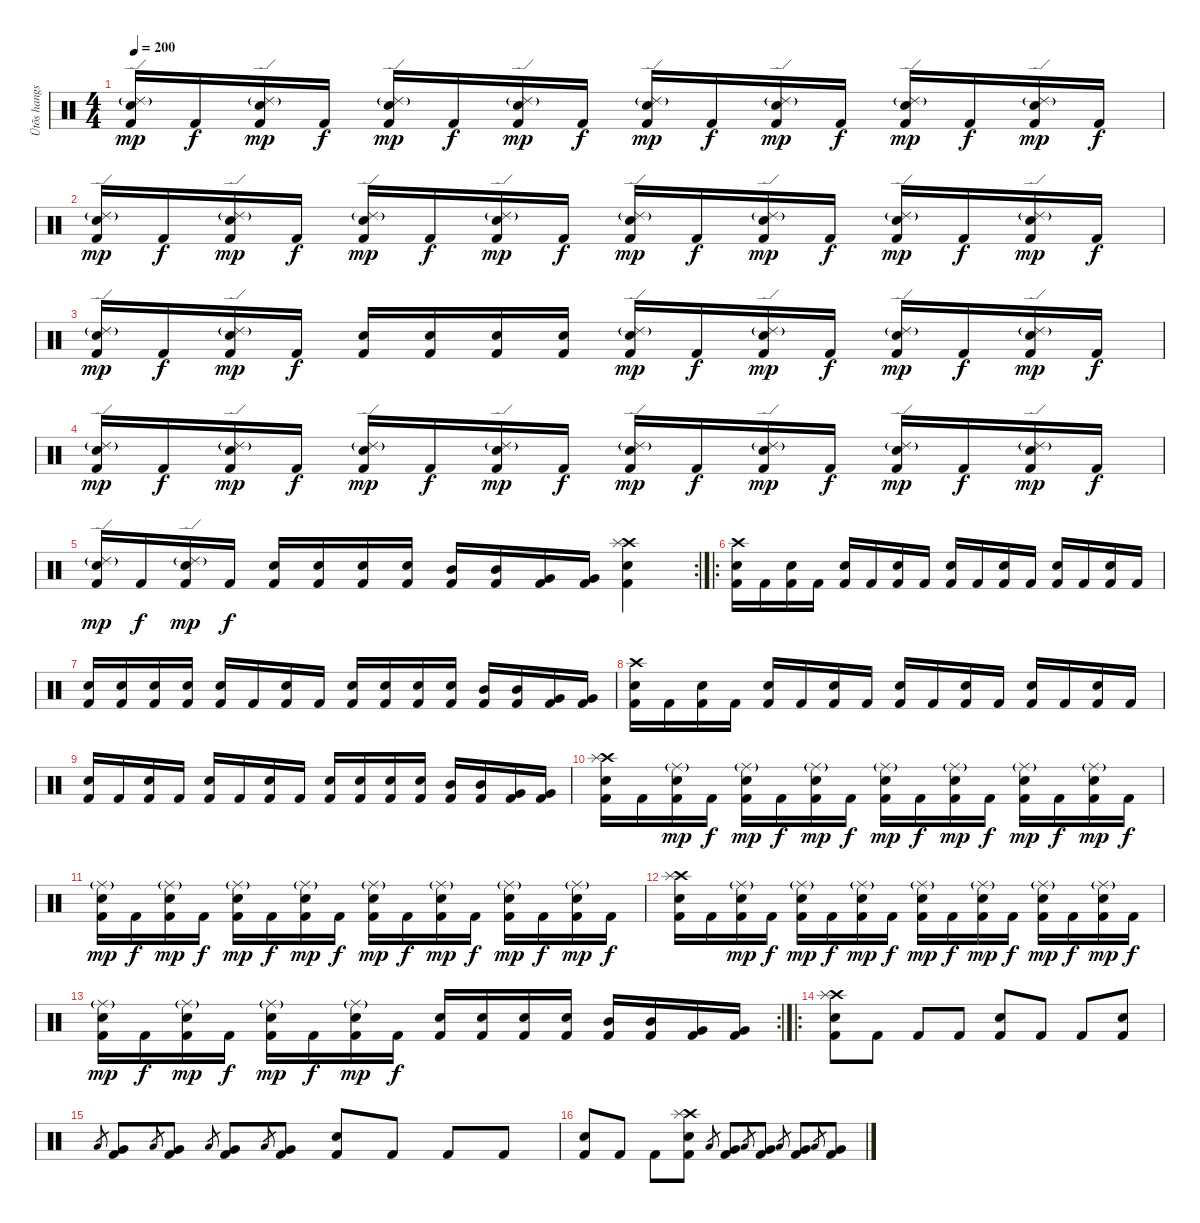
\track ("Ütõs hangszer" "Ütõs hangs") {instrument percussion}
\staff {score}
\articulation defaults
\ts (4 4)
\tempo 200
\clef neutral
\ks c
("Ride (edge) 2"{g} "Electric Snare (hit)" "Kick (hit) 2").16{dy mp} "Kick (hit) 2".16{dy f} ("Ride (edge) 2"{g} "Electric Snare (hit)" "Kick (hit) 2").16{dy mp} "Kick (hit) 2".16{dy f} ("Ride (edge) 2"{g} "Electric Snare (hit)" "Kick (hit) 2").16{dy mp} "Kick (hit) 2".16{dy f} ("Ride (edge) 2"{g} "Electric Snare (hit)" "Kick (hit) 2").16{dy mp} "Kick (hit) 2".16{dy f} ("Ride (edge) 2"{g} "Electric Snare (hit)" "Kick (hit) 2").16{dy mp} "Kick (hit) 2".16{dy f} ("Ride (edge) 2"{g} "Electric Snare (hit)" "Kick (hit) 2").16{dy mp} "Kick (hit) 2".16{dy f} ("Ride (edge) 2"{g} "Electric Snare (hit)" "Kick (hit) 2").16{dy mp} "Kick (hit) 2".16{dy f} ("Ride (edge) 2"{g} "Electric Snare (hit)" "Kick (hit) 2").16{dy mp} "Kick (hit) 2".16{dy f} |
("Ride (edge) 2"{g} "Electric Snare (hit)" "Kick (hit) 2").16{dy mp} "Kick (hit) 2".16{dy f} ("Ride (edge) 2"{g} "Electric Snare (hit)" "Kick (hit) 2").16{dy mp} "Kick (hit) 2".16{dy f} ("Ride (edge) 2"{g} "Electric Snare (hit)" "Kick (hit) 2").16{dy mp} "Kick (hit) 2".16{dy f} ("Ride (edge) 2"{g} "Electric Snare (hit)" "Kick (hit) 2").16{dy mp} "Kick (hit) 2".16{dy f} ("Ride (edge) 2"{g} "Electric Snare (hit)" "Kick (hit) 2").16{dy mp} "Kick (hit) 2".16{dy f} ("Ride (edge) 2"{g} "Electric Snare (hit)" "Kick (hit) 2").16{dy mp} "Kick (hit) 2".16{dy f} ("Ride (edge) 2"{g} "Electric Snare (hit)" "Kick (hit) 2").16{dy mp} "Kick (hit) 2".16{dy f} ("Ride (edge) 2"{g} "Electric Snare (hit)" "Kick (hit) 2").16{dy mp} "Kick (hit) 2".16{dy f} |
("Ride (edge) 2"{g} "Electric Snare (hit)" "Kick (hit) 2").16{dy mp} "Kick (hit) 2".16{dy f} ("Ride (edge) 2"{g} "Electric Snare (hit)" "Kick (hit) 2").16{dy mp} "Kick (hit) 2".16{dy f} ("Electric Snare (hit)" "Kick (hit) 2").16 ("Electric Snare (hit)" "Kick (hit) 2").16 ("Electric Snare (hit)" "Kick (hit) 2").16 ("Electric Snare (hit)" "Kick (hit) 2").16 ("Ride (edge) 2"{g} "Electric Snare (hit)" "Kick (hit) 2").16{dy mp} "Kick (hit) 2".16{dy f} ("Ride (edge) 2"{g} "Electric Snare (hit)" "Kick (hit) 2").16{dy mp} "Kick (hit) 2".16{dy f} ("Ride (edge) 2"{g} "Electric Snare (hit)" "Kick (hit) 2").16{dy mp} "Kick (hit) 2".16{dy f} ("Ride (edge) 2"{g} "Electric Snare (hit)" "Kick (hit) 2").16{dy mp} "Kick (hit) 2".16{dy f} |
("Ride (edge) 2"{g} "Electric Snare (hit)" "Kick (hit) 2").16{dy mp} "Kick (hit) 2".16{dy f} ("Ride (edge) 2"{g} "Electric Snare (hit)" "Kick (hit) 2").16{dy mp} "Kick (hit) 2".16{dy f} ("Ride (edge) 2"{g} "Electric Snare (hit)" "Kick (hit) 2").16{dy mp} "Kick (hit) 2".16{dy f} ("Ride (edge) 2"{g} "Electric Snare (hit)" "Kick (hit) 2").16{dy mp} "Kick (hit) 2".16{dy f} ("Ride (edge) 2"{g} "Electric Snare (hit)" "Kick (hit) 2").16{dy mp} "Kick (hit) 2".16{dy f} ("Ride (edge) 2"{g} "Electric Snare (hit)" "Kick (hit) 2").16{dy mp} "Kick (hit) 2".16{dy f} ("Ride (edge) 2"{g} "Electric Snare (hit)" "Kick (hit) 2").16{dy mp} "Kick (hit) 2".16{dy f} ("Ride (edge) 2"{g} "Electric Snare (hit)" "Kick (hit) 2").16{dy mp} "Kick (hit) 2".16{dy f} |
\rc 2
("Ride (edge) 2"{g} "Electric Snare (hit)" "Kick (hit) 2").16{dy mp} "Kick (hit) 2".16{dy f} ("Ride (edge) 2"{g} "Electric Snare (hit)" "Kick (hit) 2").16{dy mp} "Kick (hit) 2".16{dy f} ("Electric Snare (hit)" "Kick (hit) 2").16 ("Electric Snare (hit)" "Kick (hit) 2").16 ("Electric Snare (hit)" "Kick (hit) 2").16 ("Electric Snare (hit)" "Kick (hit) 2").16 ("Mid Tom (hit)" "Kick (hit) 2").16 ("Mid Tom (hit)" "Kick (hit) 2").16 ("Very Low Tom (hit)" "Kick (hit) 2").16 ("Very Low Tom (hit)" "Kick (hit) 2").16 ("Crash high (hit)" "Splash (hit)" "Electric Snare (hit)" "Kick (hit) 2").4 |
\ro
("Crash high (hit)" "Electric Snare (hit)" "Kick (hit) 2").16 "Kick (hit) 2".16 ("Electric Snare (hit)" "Kick (hit) 2").16 "Kick (hit) 2".16 ("Electric Snare (hit)" "Kick (hit) 2").16 "Kick (hit) 2".16 ("Electric Snare (hit)" "Kick (hit) 2").16 "Kick (hit) 2".16 ("Electric Snare (hit)" "Kick (hit) 2").16 "Kick (hit) 2".16 ("Electric Snare (hit)" "Kick (hit) 2").16 "Kick (hit) 2".16 ("Electric Snare (hit)" "Kick (hit) 2").16 "Kick (hit) 2".16 ("Electric Snare (hit)" "Kick (hit) 2").16 "Kick (hit) 2".16 |
("Electric Snare (hit)" "Kick (hit) 2").16 ("Electric Snare (hit)" "Kick (hit) 2").16 ("Electric Snare (hit)" "Kick (hit) 2").16 ("Electric Snare (hit)" "Kick (hit) 2").16 ("Electric Snare (hit)" "Kick (hit) 2").16 "Kick (hit) 2".16 ("Electric Snare (hit)" "Kick (hit) 2").16 "Kick (hit) 2".16 ("Electric Snare (hit)" "Kick (hit) 2").16 ("Electric Snare (hit)" "Kick (hit) 2").16 ("Electric Snare (hit)" "Kick (hit) 2").16 ("Electric Snare (hit)" "Kick (hit) 2").16 ("Mid Tom (hit)" "Kick (hit) 2").16 ("Mid Tom (hit)" "Kick (hit) 2").16 ("Very Low Tom (hit)" "Kick (hit) 2").16 ("Very Low Tom (hit)" "Kick (hit) 2").16 |
("Crash high (hit)" "Electric Snare (hit)" "Kick (hit) 2").16 "Kick (hit) 2".16 ("Electric Snare (hit)" "Kick (hit) 2").16 "Kick (hit) 2".16 ("Electric Snare (hit)" "Kick (hit) 2").16 "Kick (hit) 2".16 ("Electric Snare (hit)" "Kick (hit) 2").16 "Kick (hit) 2".16 ("Electric Snare (hit)" "Kick (hit) 2").16 "Kick (hit) 2".16 ("Electric Snare (hit)" "Kick (hit) 2").16 "Kick (hit) 2".16 ("Electric Snare (hit)" "Kick (hit) 2").16 "Kick (hit) 2".16 ("Electric Snare (hit)" "Kick (hit) 2").16 "Kick (hit) 2".16 |
("Electric Snare (hit)" "Kick (hit) 2").16 "Kick (hit) 2".16 ("Electric Snare (hit)" "Kick (hit) 2").16 "Kick (hit) 2".16 ("Electric Snare (hit)" "Kick (hit) 2").16 "Kick (hit) 2".16 ("Electric Snare (hit)" "Kick (hit) 2").16 "Kick (hit) 2".16 ("Electric Snare (hit)" "Kick (hit) 2").16 ("Electric Snare (hit)" "Kick (hit) 2").16 ("Electric Snare (hit)" "Kick (hit) 2").16 ("Electric Snare (hit)" "Kick (hit) 2").16 ("Mid Tom (hit)" "Kick (hit) 2").16 ("Mid Tom (hit)" "Kick (hit) 2").16 ("Very Low Tom (hit)" "Kick (hit) 2").16 ("Very Low Tom (hit)" "Kick (hit) 2").16 |
("Crash high (hit)" "Splash (hit)" "Electric Snare (hit)" "Kick (hit) 2").16 "Kick (hit) 2".16 ("Ride (middle)"{g} "Electric Snare (hit)" "Kick (hit) 2").16{dy mp} "Kick (hit) 2".16{dy f} ("Ride (middle)"{g} "Electric Snare (hit)" "Kick (hit) 2").16{dy mp} "Kick (hit) 2".16{dy f} ("Ride (middle)"{g} "Electric Snare (hit)" "Kick (hit) 2").16{dy mp} "Kick (hit) 2".16{dy f} ("Ride (middle)"{g} "Electric Snare (hit)" "Kick (hit) 2").16{dy mp} "Kick (hit) 2".16{dy f} ("Ride (middle)"{g} "Electric Snare (hit)" "Kick (hit) 2").16{dy mp} "Kick (hit) 2".16{dy f} ("Ride (middle)"{g} "Electric Snare (hit)" "Kick (hit) 2").16{dy mp} "Kick (hit) 2".16{dy f} ("Ride (middle)"{g} "Electric Snare (hit)" "Kick (hit) 2").16{dy mp} "Kick (hit) 2".16{dy f} |
("Ride (middle)"{g} "Electric Snare (hit)" "Kick (hit) 2").16{dy mp} "Kick (hit) 2".16{dy f} ("Ride (middle)"{g} "Electric Snare (hit)" "Kick (hit) 2").16{dy mp} "Kick (hit) 2".16{dy f} ("Ride (middle)"{g} "Electric Snare (hit)" "Kick (hit) 2").16{dy mp} "Kick (hit) 2".16{dy f} ("Ride (middle)"{g} "Electric Snare (hit)" "Kick (hit) 2").16{dy mp} "Kick (hit) 2".16{dy f} ("Ride (middle)"{g} "Electric Snare (hit)" "Kick (hit) 2").16{dy mp} "Kick (hit) 2".16{dy f} ("Ride (middle)"{g} "Electric Snare (hit)" "Kick (hit) 2").16{dy mp} "Kick (hit) 2".16{dy f} ("Ride (middle)"{g} "Electric Snare (hit)" "Kick (hit) 2").16{dy mp} "Kick (hit) 2".16{dy f} ("Ride (middle)"{g} "Electric Snare (hit)" "Kick (hit) 2").16{dy mp} "Kick (hit) 2".16{dy f} |
("Crash high (hit)" "Splash (hit)" "Electric Snare (hit)" "Kick (hit) 2").16 "Kick (hit) 2".16 ("Ride (middle)"{g} "Electric Snare (hit)" "Kick (hit) 2").16{dy mp} "Kick (hit) 2".16{dy f} ("Ride (middle)"{g} "Electric Snare (hit)" "Kick (hit) 2").16{dy mp} "Kick (hit) 2".16{dy f} ("Ride (middle)"{g} "Electric Snare (hit)" "Kick (hit) 2").16{dy mp} "Kick (hit) 2".16{dy f} ("Ride (middle)"{g} "Electric Snare (hit)" "Kick (hit) 2").16{dy mp} "Kick (hit) 2".16{dy f} ("Ride (middle)"{g} "Electric Snare (hit)" "Kick (hit) 2").16{dy mp} "Kick (hit) 2".16{dy f} ("Ride (middle)"{g} "Electric Snare (hit)" "Kick (hit) 2").16{dy mp} "Kick (hit) 2".16{dy f} ("Ride (middle)"{g} "Electric Snare (hit)" "Kick (hit) 2").16{dy mp} "Kick (hit) 2".16{dy f} |
\rc 2
("Ride (middle)"{g} "Electric Snare (hit)" "Kick (hit) 2").16{dy mp} "Kick (hit) 2".16{dy f} ("Ride (middle)"{g} "Electric Snare (hit)" "Kick (hit) 2").16{dy mp} "Kick (hit) 2".16{dy f} ("Ride (middle)"{g} "Electric Snare (hit)" "Kick (hit) 2").16{dy mp} "Kick (hit) 2".16{dy f} ("Ride (middle)"{g} "Electric Snare (hit)" "Kick (hit) 2").16{dy mp} "Kick (hit) 2".16{dy f} ("Electric Snare (hit)" "Kick (hit) 2").16 ("Electric Snare (hit)" "Kick (hit) 2").16 ("Electric Snare (hit)" "Kick (hit) 2").16 ("Electric Snare (hit)" "Kick (hit) 2").16 ("Mid Tom (hit)" "Kick (hit) 2").16 ("Mid Tom (hit)" "Kick (hit) 2").16 ("Very Low Tom (hit)" "Kick (hit) 2").16 ("Very Low Tom (hit)" "Kick (hit) 2").16 |
\ro
("Crash high (hit)" "Splash (hit)" "Electric Snare (hit)" "Kick (hit) 2").8 "Kick (hit) 2".8 "Kick (hit) 2".8 "Kick (hit) 2".8 ("Electric Snare (hit)" "Kick (hit) 2").8 "Kick (hit) 2".8 "Kick (hit) 2".8 ("Electric Snare (hit)" "Kick (hit) 2").8 |
"Low Floor Tom (hit)".8{gr} ("Very Low Tom (hit)" "Kick (hit) 2").8 "Low Floor Tom (hit)".8{gr} ("Very Low Tom (hit)" "Kick (hit) 2").8 "Low Floor Tom (hit)".8{gr} ("Very Low Tom (hit)" "Kick (hit) 2").8 "Low Floor Tom (hit)".8{gr} ("Very Low Tom (hit)" "Kick (hit) 2").8 ("Electric Snare (hit)" "Kick (hit) 2").8 "Kick (hit) 2".8 "Kick (hit) 2".8 "Kick (hit) 2".8 |
("Electric Snare (hit)" "Kick (hit) 2").8 "Kick (hit) 2".8 "Kick (hit) 2".8 ("Crash high (hit)" "Splash (hit)" "Electric Snare (hit)" "Kick (hit) 2").8 "Low Floor Tom (hit)".8{gr} ("Very Low Tom (hit)" "Kick (hit) 2").8 "Low Floor Tom (hit)".8{gr} ("Very Low Tom (hit)" "Kick (hit) 2").8 "Low Floor Tom (hit)".8{gr} ("Very Low Tom (hit)" "Kick (hit) 2").8 "Low Floor Tom (hit)".8{gr} ("Very Low Tom (hit)" "Kick (hit) 2").8
